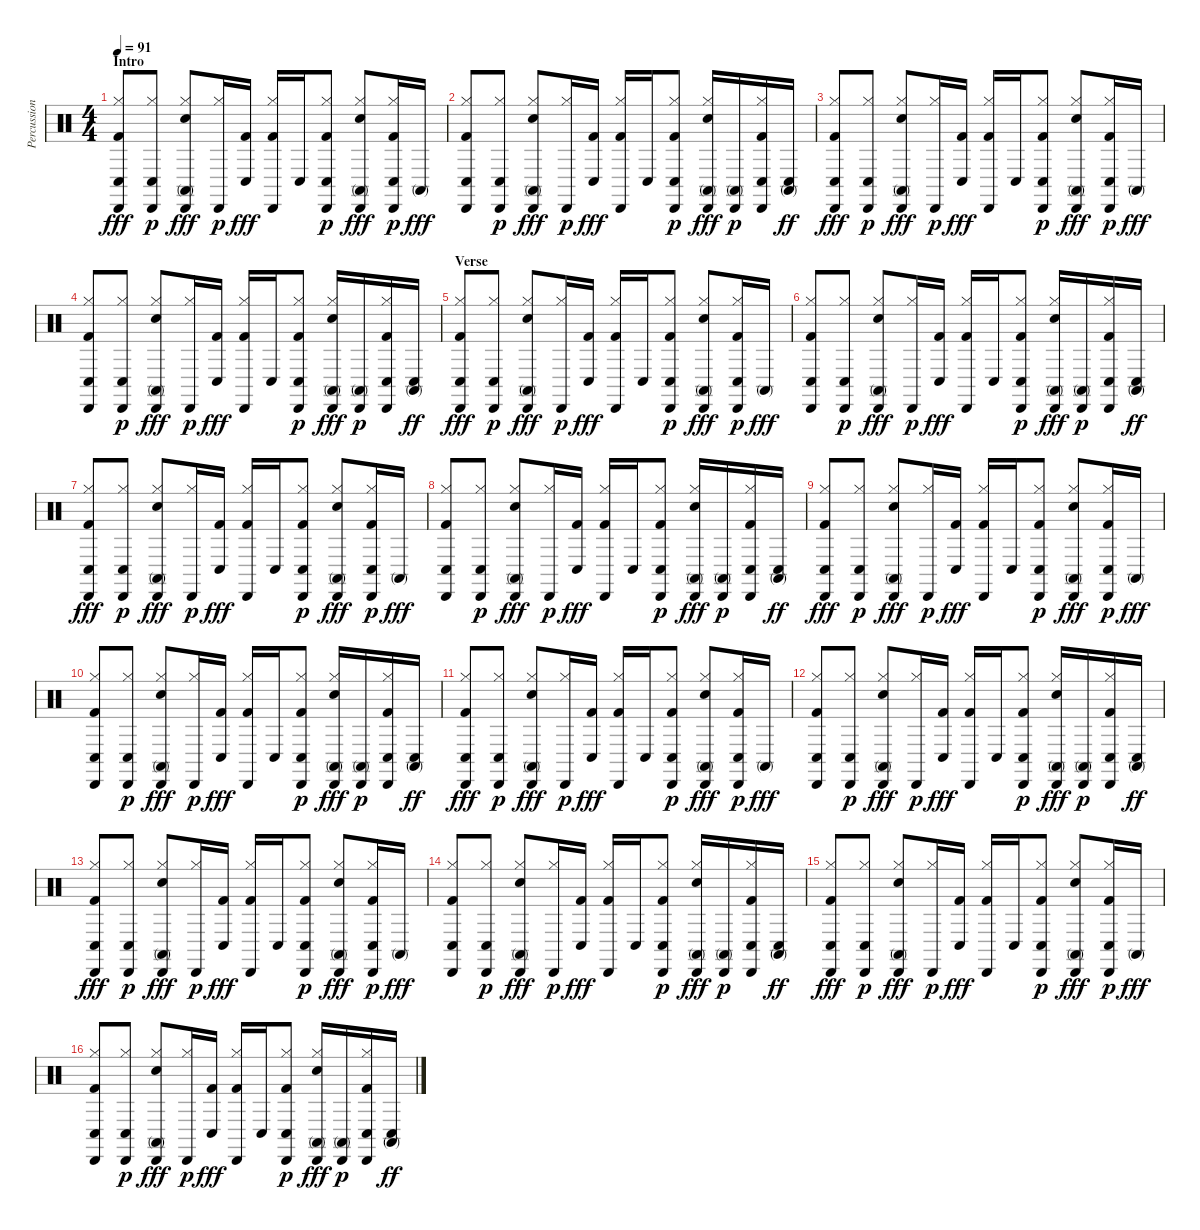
\track ("Percussion" "Percussion") {instrument percussion}
\staff {score}
\articulation defaults
\ts (4 4)
\section ("" "Intro")
\tempo 91
\clef neutral
\ks c
("Kick (hit) 2" "Hi-Hat (closed)" "Conga low (hit)" "Cabasa (hit)").8{dy fff} ("Hi-Hat (closed)" "Conga low (hit)" "Cabasa (hit)").8{dy p} ("Snare (hit) 2" "Hi-Hat (closed)" "Conga high (mute)" "Cabasa (hit)").8{dy fff} ("Hi-Hat (closed)" "Cabasa (hit)").16{dy p} ("Kick (hit) 2" "Conga low (hit)").16{dy fff} ("Kick (hit) 2" "Hi-Hat (closed)" "Cabasa (hit)").16 "Conga low (hit)".16 ("Kick (hit) 2" "Hi-Hat (closed)" "Conga low (hit)" "Cabasa (hit)").8{dy p} ("Snare (hit) 2" "Hi-Hat (closed)" "Conga high (mute)" "Cabasa (hit)").8{dy fff} ("Kick (hit) 2" "Hi-Hat (closed)" "Conga low (hit)" "Cabasa (hit)").16{dy p} "Conga high (mute)".16{dy fff} |
("Kick (hit) 2" "Hi-Hat (closed)" "Conga low (hit)" "Cabasa (hit)").8 ("Hi-Hat (closed)" "Conga low (hit)" "Cabasa (hit)").8{dy p} ("Snare (hit) 2" "Hi-Hat (closed)" "Conga high (mute)" "Cabasa (hit)").8{dy fff} ("Hi-Hat (closed)" "Cabasa (hit)").16{dy p} ("Kick (hit) 2" "Conga low (hit)").16{dy fff} ("Kick (hit) 2" "Hi-Hat (closed)" "Cabasa (hit)").16 "Conga low (hit)".16 ("Kick (hit) 2" "Hi-Hat (closed)" "Conga low (hit)" "Cabasa (hit)").8{dy p} ("Snare (hit) 2" "Hi-Hat (closed)" "Conga high (mute)" "Cabasa (hit)").16{dy fff} ("Conga high (mute)" "Cabasa (hit)").16{dy p} ("Kick (hit) 2" "Hi-Hat (closed)" "Conga low (hit)" "Cabasa (hit)").16 ("Conga high (mute)" "Conga low (hit)").16{dy ff} |
("Kick (hit) 2" "Hi-Hat (closed)" "Conga low (hit)" "Cabasa (hit)").8{dy fff} ("Hi-Hat (closed)" "Conga low (hit)" "Cabasa (hit)").8{dy p} ("Snare (hit) 2" "Hi-Hat (closed)" "Conga high (mute)" "Cabasa (hit)").8{dy fff} ("Hi-Hat (closed)" "Cabasa (hit)").16{dy p} ("Kick (hit) 2" "Conga low (hit)").16{dy fff} ("Kick (hit) 2" "Hi-Hat (closed)" "Cabasa (hit)").16 "Conga low (hit)".16 ("Kick (hit) 2" "Hi-Hat (closed)" "Conga low (hit)" "Cabasa (hit)").8{dy p} ("Snare (hit) 2" "Hi-Hat (closed)" "Conga high (mute)" "Cabasa (hit)").8{dy fff} ("Kick (hit) 2" "Hi-Hat (closed)" "Conga low (hit)" "Cabasa (hit)").16{dy p} "Conga high (mute)".16{dy fff} |
("Kick (hit) 2" "Hi-Hat (closed)" "Conga low (hit)" "Cabasa (hit)").8 ("Hi-Hat (closed)" "Conga low (hit)" "Cabasa (hit)").8{dy p} ("Snare (hit) 2" "Hi-Hat (closed)" "Conga high (mute)" "Cabasa (hit)").8{dy fff} ("Hi-Hat (closed)" "Cabasa (hit)").16{dy p} ("Kick (hit) 2" "Conga low (hit)").16{dy fff} ("Kick (hit) 2" "Hi-Hat (closed)" "Cabasa (hit)").16 "Conga low (hit)".16 ("Kick (hit) 2" "Hi-Hat (closed)" "Conga low (hit)" "Cabasa (hit)").8{dy p} ("Snare (hit) 2" "Hi-Hat (closed)" "Conga high (mute)" "Cabasa (hit)").16{dy fff} ("Conga high (mute)" "Cabasa (hit)").16{dy p} ("Kick (hit) 2" "Hi-Hat (closed)" "Conga low (hit)" "Cabasa (hit)").16 ("Conga high (mute)" "Conga low (hit)").16{dy ff} |
\section ("" "Verse")
("Kick (hit) 2" "Hi-Hat (closed)" "Conga low (hit)" "Cabasa (hit)").8{dy fff} ("Hi-Hat (closed)" "Conga low (hit)" "Cabasa (hit)").8{dy p} ("Snare (hit) 2" "Hi-Hat (closed)" "Conga high (mute)" "Cabasa (hit)").8{dy fff} ("Hi-Hat (closed)" "Cabasa (hit)").16{dy p} ("Kick (hit) 2" "Conga low (hit)").16{dy fff} ("Kick (hit) 2" "Hi-Hat (closed)" "Cabasa (hit)").16 "Conga low (hit)".16 ("Kick (hit) 2" "Hi-Hat (closed)" "Conga low (hit)" "Cabasa (hit)").8{dy p} ("Snare (hit) 2" "Hi-Hat (closed)" "Conga high (mute)" "Cabasa (hit)").8{dy fff} ("Kick (hit) 2" "Hi-Hat (closed)" "Conga low (hit)" "Cabasa (hit)").16{dy p} "Conga high (mute)".16{dy fff} |
("Kick (hit) 2" "Hi-Hat (closed)" "Conga low (hit)" "Cabasa (hit)").8 ("Hi-Hat (closed)" "Conga low (hit)" "Cabasa (hit)").8{dy p} ("Snare (hit) 2" "Hi-Hat (closed)" "Conga high (mute)" "Cabasa (hit)").8{dy fff} ("Hi-Hat (closed)" "Cabasa (hit)").16{dy p} ("Kick (hit) 2" "Conga low (hit)").16{dy fff} ("Kick (hit) 2" "Hi-Hat (closed)" "Cabasa (hit)").16 "Conga low (hit)".16 ("Kick (hit) 2" "Hi-Hat (closed)" "Conga low (hit)" "Cabasa (hit)").8{dy p} ("Snare (hit) 2" "Hi-Hat (closed)" "Conga high (mute)" "Cabasa (hit)").16{dy fff} ("Conga high (mute)" "Cabasa (hit)").16{dy p} ("Kick (hit) 2" "Hi-Hat (closed)" "Conga low (hit)" "Cabasa (hit)").16 ("Conga high (mute)" "Conga low (hit)").16{dy ff} |
("Kick (hit) 2" "Hi-Hat (closed)" "Conga low (hit)" "Cabasa (hit)").8{dy fff} ("Hi-Hat (closed)" "Conga low (hit)" "Cabasa (hit)").8{dy p} ("Snare (hit) 2" "Hi-Hat (closed)" "Conga high (mute)" "Cabasa (hit)").8{dy fff} ("Hi-Hat (closed)" "Cabasa (hit)").16{dy p} ("Kick (hit) 2" "Conga low (hit)").16{dy fff} ("Kick (hit) 2" "Hi-Hat (closed)" "Cabasa (hit)").16 "Conga low (hit)".16 ("Kick (hit) 2" "Hi-Hat (closed)" "Conga low (hit)" "Cabasa (hit)").8{dy p} ("Snare (hit) 2" "Hi-Hat (closed)" "Conga high (mute)" "Cabasa (hit)").8{dy fff} ("Kick (hit) 2" "Hi-Hat (closed)" "Conga low (hit)" "Cabasa (hit)").16{dy p} "Conga high (mute)".16{dy fff} |
("Kick (hit) 2" "Hi-Hat (closed)" "Conga low (hit)" "Cabasa (hit)").8 ("Hi-Hat (closed)" "Conga low (hit)" "Cabasa (hit)").8{dy p} ("Snare (hit) 2" "Hi-Hat (closed)" "Conga high (mute)" "Cabasa (hit)").8{dy fff} ("Hi-Hat (closed)" "Cabasa (hit)").16{dy p} ("Kick (hit) 2" "Conga low (hit)").16{dy fff} ("Kick (hit) 2" "Hi-Hat (closed)" "Cabasa (hit)").16 "Conga low (hit)".16 ("Kick (hit) 2" "Hi-Hat (closed)" "Conga low (hit)" "Cabasa (hit)").8{dy p} ("Snare (hit) 2" "Hi-Hat (closed)" "Conga high (mute)" "Cabasa (hit)").16{dy fff} ("Conga high (mute)" "Cabasa (hit)").16{dy p} ("Kick (hit) 2" "Hi-Hat (closed)" "Conga low (hit)" "Cabasa (hit)").16 ("Conga high (mute)" "Conga low (hit)").16{dy ff} |
("Kick (hit) 2" "Hi-Hat (closed)" "Conga low (hit)" "Cabasa (hit)").8{dy fff} ("Hi-Hat (closed)" "Conga low (hit)" "Cabasa (hit)").8{dy p} ("Snare (hit) 2" "Hi-Hat (closed)" "Conga high (mute)" "Cabasa (hit)").8{dy fff} ("Hi-Hat (closed)" "Cabasa (hit)").16{dy p} ("Kick (hit) 2" "Conga low (hit)").16{dy fff} ("Kick (hit) 2" "Hi-Hat (closed)" "Cabasa (hit)").16 "Conga low (hit)".16 ("Kick (hit) 2" "Hi-Hat (closed)" "Conga low (hit)" "Cabasa (hit)").8{dy p} ("Snare (hit) 2" "Hi-Hat (closed)" "Conga high (mute)" "Cabasa (hit)").8{dy fff} ("Kick (hit) 2" "Hi-Hat (closed)" "Conga low (hit)" "Cabasa (hit)").16{dy p} "Conga high (mute)".16{dy fff} |
("Kick (hit) 2" "Hi-Hat (closed)" "Conga low (hit)" "Cabasa (hit)").8 ("Hi-Hat (closed)" "Conga low (hit)" "Cabasa (hit)").8{dy p} ("Snare (hit) 2" "Hi-Hat (closed)" "Conga high (mute)" "Cabasa (hit)").8{dy fff} ("Hi-Hat (closed)" "Cabasa (hit)").16{dy p} ("Kick (hit) 2" "Conga low (hit)").16{dy fff} ("Kick (hit) 2" "Hi-Hat (closed)" "Cabasa (hit)").16 "Conga low (hit)".16 ("Kick (hit) 2" "Hi-Hat (closed)" "Conga low (hit)" "Cabasa (hit)").8{dy p} ("Snare (hit) 2" "Hi-Hat (closed)" "Conga high (mute)" "Cabasa (hit)").16{dy fff} ("Conga high (mute)" "Cabasa (hit)").16{dy p} ("Kick (hit) 2" "Hi-Hat (closed)" "Conga low (hit)" "Cabasa (hit)").16 ("Conga high (mute)" "Conga low (hit)").16{dy ff} |
("Kick (hit) 2" "Hi-Hat (closed)" "Conga low (hit)" "Cabasa (hit)").8{dy fff} ("Hi-Hat (closed)" "Conga low (hit)" "Cabasa (hit)").8{dy p} ("Snare (hit) 2" "Hi-Hat (closed)" "Conga high (mute)" "Cabasa (hit)").8{dy fff} ("Hi-Hat (closed)" "Cabasa (hit)").16{dy p} ("Kick (hit) 2" "Conga low (hit)").16{dy fff} ("Kick (hit) 2" "Hi-Hat (closed)" "Cabasa (hit)").16 "Conga low (hit)".16 ("Kick (hit) 2" "Hi-Hat (closed)" "Conga low (hit)" "Cabasa (hit)").8{dy p} ("Snare (hit) 2" "Hi-Hat (closed)" "Conga high (mute)" "Cabasa (hit)").8{dy fff} ("Kick (hit) 2" "Hi-Hat (closed)" "Conga low (hit)" "Cabasa (hit)").16{dy p} "Conga high (mute)".16{dy fff} |
("Kick (hit) 2" "Hi-Hat (closed)" "Conga low (hit)" "Cabasa (hit)").8 ("Hi-Hat (closed)" "Conga low (hit)" "Cabasa (hit)").8{dy p} ("Snare (hit) 2" "Hi-Hat (closed)" "Conga high (mute)" "Cabasa (hit)").8{dy fff} ("Hi-Hat (closed)" "Cabasa (hit)").16{dy p} ("Kick (hit) 2" "Conga low (hit)").16{dy fff} ("Kick (hit) 2" "Hi-Hat (closed)" "Cabasa (hit)").16 "Conga low (hit)".16 ("Kick (hit) 2" "Hi-Hat (closed)" "Conga low (hit)" "Cabasa (hit)").8{dy p} ("Snare (hit) 2" "Hi-Hat (closed)" "Conga high (mute)" "Cabasa (hit)").16{dy fff} ("Conga high (mute)" "Cabasa (hit)").16{dy p} ("Kick (hit) 2" "Hi-Hat (closed)" "Conga low (hit)" "Cabasa (hit)").16 ("Conga high (mute)" "Conga low (hit)").16{dy ff} |
("Kick (hit) 2" "Hi-Hat (closed)" "Conga low (hit)" "Cabasa (hit)").8{dy fff} ("Hi-Hat (closed)" "Conga low (hit)" "Cabasa (hit)").8{dy p} ("Snare (hit) 2" "Hi-Hat (closed)" "Conga high (mute)" "Cabasa (hit)").8{dy fff} ("Hi-Hat (closed)" "Cabasa (hit)").16{dy p} ("Kick (hit) 2" "Conga low (hit)").16{dy fff} ("Kick (hit) 2" "Hi-Hat (closed)" "Cabasa (hit)").16 "Conga low (hit)".16 ("Kick (hit) 2" "Hi-Hat (closed)" "Conga low (hit)" "Cabasa (hit)").8{dy p} ("Snare (hit) 2" "Hi-Hat (closed)" "Conga high (mute)" "Cabasa (hit)").8{dy fff} ("Kick (hit) 2" "Hi-Hat (closed)" "Conga low (hit)" "Cabasa (hit)").16{dy p} "Conga high (mute)".16{dy fff} |
("Kick (hit) 2" "Hi-Hat (closed)" "Conga low (hit)" "Cabasa (hit)").8 ("Hi-Hat (closed)" "Conga low (hit)" "Cabasa (hit)").8{dy p} ("Snare (hit) 2" "Hi-Hat (closed)" "Conga high (mute)" "Cabasa (hit)").8{dy fff} ("Hi-Hat (closed)" "Cabasa (hit)").16{dy p} ("Kick (hit) 2" "Conga low (hit)").16{dy fff} ("Kick (hit) 2" "Hi-Hat (closed)" "Cabasa (hit)").16 "Conga low (hit)".16 ("Kick (hit) 2" "Hi-Hat (closed)" "Conga low (hit)" "Cabasa (hit)").8{dy p} ("Snare (hit) 2" "Hi-Hat (closed)" "Conga high (mute)" "Cabasa (hit)").16{dy fff} ("Conga high (mute)" "Cabasa (hit)").16{dy p} ("Kick (hit) 2" "Hi-Hat (closed)" "Conga low (hit)" "Cabasa (hit)").16 ("Conga high (mute)" "Conga low (hit)").16{dy ff} |
("Kick (hit) 2" "Hi-Hat (closed)" "Conga low (hit)" "Cabasa (hit)").8{dy fff} ("Hi-Hat (closed)" "Conga low (hit)" "Cabasa (hit)").8{dy p} ("Snare (hit) 2" "Hi-Hat (closed)" "Conga high (mute)" "Cabasa (hit)").8{dy fff} ("Hi-Hat (closed)" "Cabasa (hit)").16{dy p} ("Kick (hit) 2" "Conga low (hit)").16{dy fff} ("Kick (hit) 2" "Hi-Hat (closed)" "Cabasa (hit)").16 "Conga low (hit)".16 ("Kick (hit) 2" "Hi-Hat (closed)" "Conga low (hit)" "Cabasa (hit)").8{dy p} ("Snare (hit) 2" "Hi-Hat (closed)" "Conga high (mute)" "Cabasa (hit)").8{dy fff} ("Kick (hit) 2" "Hi-Hat (closed)" "Conga low (hit)" "Cabasa (hit)").16{dy p} "Conga high (mute)".16{dy fff} |
("Kick (hit) 2" "Hi-Hat (closed)" "Conga low (hit)" "Cabasa (hit)").8 ("Hi-Hat (closed)" "Conga low (hit)" "Cabasa (hit)").8{dy p} ("Snare (hit) 2" "Hi-Hat (closed)" "Conga high (mute)" "Cabasa (hit)").8{dy fff} ("Hi-Hat (closed)" "Cabasa (hit)").16{dy p} ("Kick (hit) 2" "Conga low (hit)").16{dy fff} ("Kick (hit) 2" "Hi-Hat (closed)" "Cabasa (hit)").16 "Conga low (hit)".16 ("Kick (hit) 2" "Hi-Hat (closed)" "Conga low (hit)" "Cabasa (hit)").8{dy p} ("Snare (hit) 2" "Hi-Hat (closed)" "Conga high (mute)" "Cabasa (hit)").16{dy fff} ("Conga high (mute)" "Cabasa (hit)").16{dy p} ("Kick (hit) 2" "Hi-Hat (closed)" "Conga low (hit)" "Cabasa (hit)").16 ("Conga high (mute)" "Conga low (hit)").16{dy ff}
